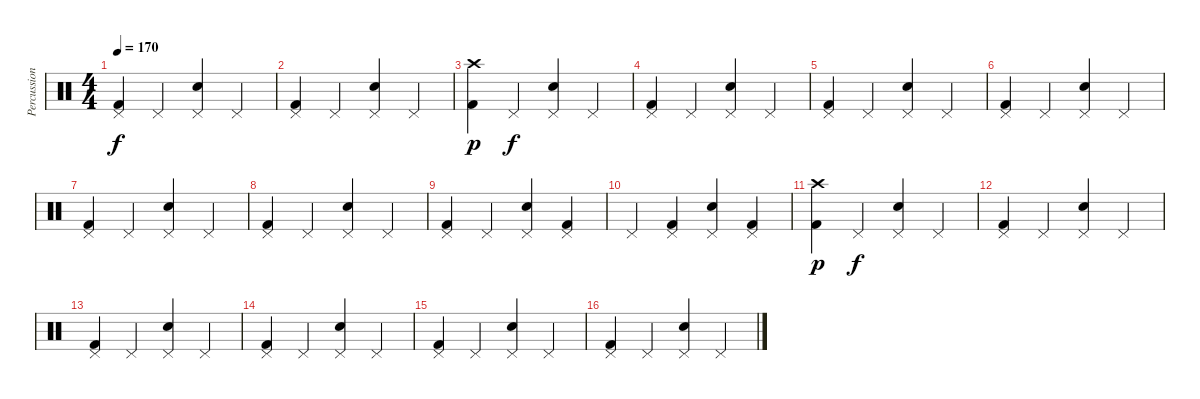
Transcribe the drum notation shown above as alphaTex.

\track ("Percussion" "Percussion") {instrument percussion}
\staff {score}
\articulation defaults
\ts (4 4)
\tempo 170
\clef neutral
\ks c
("Pedal Hi-Hat (hit)" "Kick (hit) 2").4{dy f} "Pedal Hi-Hat (hit)".4 ("Pedal Hi-Hat (hit)" "Snare (hit) 2").4 "Pedal Hi-Hat (hit)".4 |
("Pedal Hi-Hat (hit)" "Kick (hit) 2").4 "Pedal Hi-Hat (hit)".4 ("Pedal Hi-Hat (hit)" "Snare (hit) 2").4 "Pedal Hi-Hat (hit)".4 |
("Crash high (hit)" "Kick (hit) 2").4{dy p} "Pedal Hi-Hat (hit)".4{dy f} ("Pedal Hi-Hat (hit)" "Snare (hit) 2").4 "Pedal Hi-Hat (hit)".4 |
("Pedal Hi-Hat (hit)" "Kick (hit) 2").4 "Pedal Hi-Hat (hit)".4 ("Pedal Hi-Hat (hit)" "Snare (hit) 2").4 "Pedal Hi-Hat (hit)".4 |
("Pedal Hi-Hat (hit)" "Kick (hit) 2").4 "Pedal Hi-Hat (hit)".4 ("Pedal Hi-Hat (hit)" "Snare (hit) 2").4 "Pedal Hi-Hat (hit)".4 |
("Pedal Hi-Hat (hit)" "Kick (hit) 2").4 "Pedal Hi-Hat (hit)".4 ("Pedal Hi-Hat (hit)" "Snare (hit) 2").4 "Pedal Hi-Hat (hit)".4 |
("Pedal Hi-Hat (hit)" "Kick (hit) 2").4 "Pedal Hi-Hat (hit)".4 ("Pedal Hi-Hat (hit)" "Snare (hit) 2").4 "Pedal Hi-Hat (hit)".4 |
("Pedal Hi-Hat (hit)" "Kick (hit) 2").4 "Pedal Hi-Hat (hit)".4 ("Pedal Hi-Hat (hit)" "Snare (hit) 2").4 "Pedal Hi-Hat (hit)".4 |
("Pedal Hi-Hat (hit)" "Kick (hit) 2").4 "Pedal Hi-Hat (hit)".4 ("Pedal Hi-Hat (hit)" "Snare (hit) 2").4 ("Pedal Hi-Hat (hit)" "Kick (hit) 2").4 |
"Pedal Hi-Hat (hit)".4 ("Pedal Hi-Hat (hit)" "Kick (hit) 2").4 ("Pedal Hi-Hat (hit)" "Snare (hit) 2").4 ("Pedal Hi-Hat (hit)" "Kick (hit) 2").4 |
("Crash high (hit)" "Kick (hit) 2").4{dy p} "Pedal Hi-Hat (hit)".4{dy f} ("Pedal Hi-Hat (hit)" "Snare (hit) 2").4 "Pedal Hi-Hat (hit)".4 |
("Pedal Hi-Hat (hit)" "Kick (hit) 2").4 "Pedal Hi-Hat (hit)".4 ("Pedal Hi-Hat (hit)" "Snare (hit) 2").4 "Pedal Hi-Hat (hit)".4 |
("Pedal Hi-Hat (hit)" "Kick (hit) 2").4 "Pedal Hi-Hat (hit)".4 ("Pedal Hi-Hat (hit)" "Snare (hit) 2").4 "Pedal Hi-Hat (hit)".4 |
("Pedal Hi-Hat (hit)" "Kick (hit) 2").4 "Pedal Hi-Hat (hit)".4 ("Pedal Hi-Hat (hit)" "Snare (hit) 2").4 "Pedal Hi-Hat (hit)".4 |
("Pedal Hi-Hat (hit)" "Kick (hit) 2").4 "Pedal Hi-Hat (hit)".4 ("Pedal Hi-Hat (hit)" "Snare (hit) 2").4 "Pedal Hi-Hat (hit)".4 |
("Pedal Hi-Hat (hit)" "Kick (hit) 2").4 "Pedal Hi-Hat (hit)".4 ("Pedal Hi-Hat (hit)" "Snare (hit) 2").4 "Pedal Hi-Hat (hit)".4
